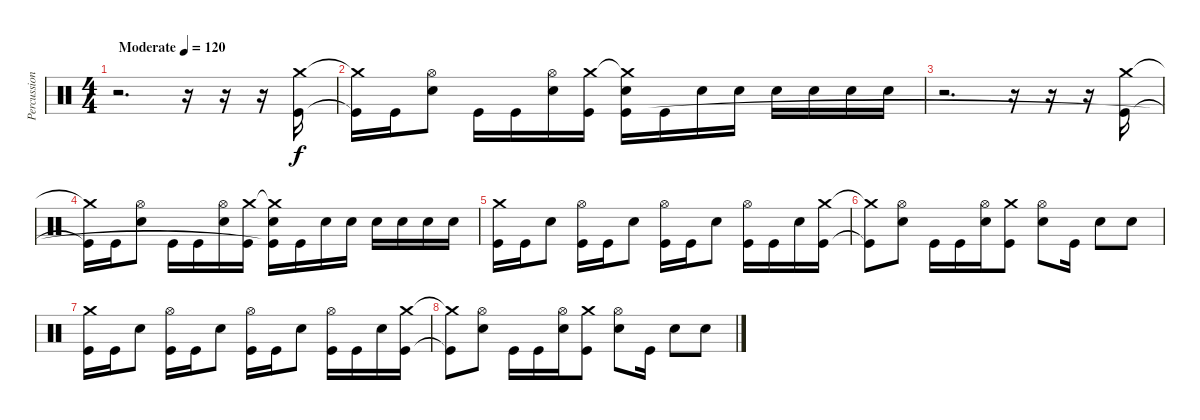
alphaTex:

\track ("Percussion" "Percussion") {instrument percussion}
\staff {score}
\articulation defaults
\ts (4 4)
\tempo (120 "Moderate")
\clef neutral
\ks c
r.2{d dy f} r.16 r.16 r.16 ("Crash medium (hit)" "Kick (hit)").16 |
("Crash medium (hit)"{t} "Kick (hit)"{t}).16 "Kick (hit)".16 ("Hi-Hat (open)" "Snare (hit) 2").8 "Kick (hit)".16 "Kick (hit)".16 ("Hi-Hat (open)" "Snare (hit) 2").16 ("Crash medium (hit)" "Kick (hit)").16 ("Crash medium (hit)"{t} "Snare (hit) 2" "Kick (hit)").16 "Kick (hit)".16 "Snare (hit) 2".16 "Snare (hit) 2".16 "Snare (hit) 2".16 "Snare (hit) 2".16 "Snare (hit) 2".16 "Snare (hit) 2".16 |
r.2{d} r.16 r.16 r.16 ("Crash medium (hit)" "Kick (hit)").16 |
("Crash medium (hit)"{t} "Kick (hit)"{t}).16 "Kick (hit)".16 ("Hi-Hat (open)" "Snare (hit) 2").8 "Kick (hit)".16 "Kick (hit)".16 ("Hi-Hat (open)" "Snare (hit) 2").16 ("Crash medium (hit)" "Kick (hit)").16 ("Crash medium (hit)"{t} "Snare (hit) 2" "Kick (hit)"{t}).16 "Kick (hit)".16 "Snare (hit) 2".16 "Snare (hit) 2".16 "Snare (hit) 2".16 "Snare (hit) 2".16 "Snare (hit) 2".16 "Snare (hit) 2".16 |
("Crash medium (hit)" "Kick (hit)").16 "Kick (hit)".16 "Snare (hit) 2".8 ("Hi-Hat (open)" "Kick (hit)").16 "Kick (hit)".16 "Snare (hit) 2".8 ("Hi-Hat (open)" "Kick (hit)").16 "Kick (hit)".16 "Snare (hit) 2".8 ("Hi-Hat (open)" "Kick (hit)").16 "Kick (hit)".16 "Snare (hit) 2".16 ("Crash medium (hit)" "Kick (hit)").16 |
("Crash medium (hit)"{t} "Kick (hit)"{t}).8 ("Hi-Hat (open)" "Snare (hit) 2").8 "Kick (hit)".16 "Kick (hit)".16 ("Hi-Hat (open)" "Snare (hit) 2").16 ("Crash medium (hit)" "Kick (hit)").8 ("Hi-Hat (open)" "Snare (hit) 2").8 "Kick (hit)".16 "Snare (hit) 2".8 "Snare (hit) 2".8 |
("Crash medium (hit)" "Kick (hit)").16 "Kick (hit)".16 "Snare (hit) 2".8 ("Hi-Hat (open)" "Kick (hit)").16 "Kick (hit)".16 "Snare (hit) 2".8 ("Hi-Hat (open)" "Kick (hit)").16 "Kick (hit)".16 "Snare (hit) 2".8 ("Hi-Hat (open)" "Kick (hit)").16 "Kick (hit)".16 "Snare (hit) 2".16 ("Crash medium (hit)" "Kick (hit)").16 |
("Crash medium (hit)"{t} "Kick (hit)"{t}).8 ("Hi-Hat (open)" "Snare (hit) 2").8 "Kick (hit)".16 "Kick (hit)".16 ("Hi-Hat (open)" "Snare (hit) 2").16 ("Crash medium (hit)" "Kick (hit)").8 ("Hi-Hat (open)" "Snare (hit) 2").8 "Kick (hit)".16 "Snare (hit) 2".8 "Snare (hit) 2".8
